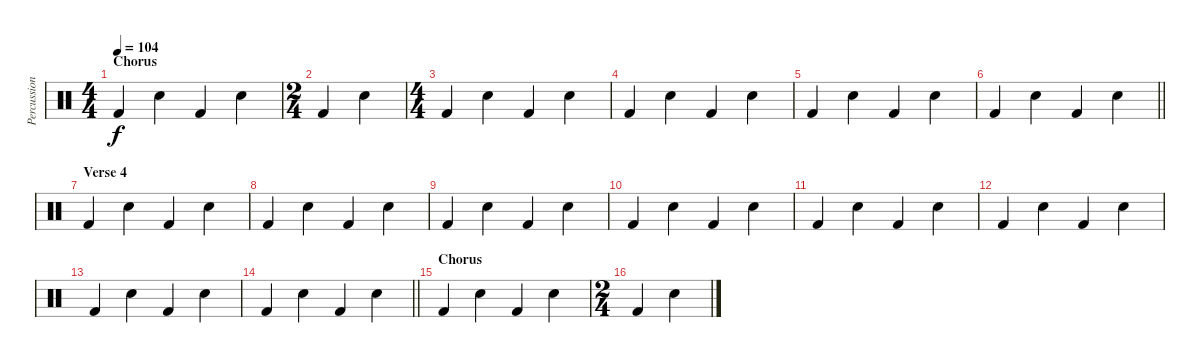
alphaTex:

\track ("Percussion" "Percussion") {instrument percussion}
\staff {score}
\articulation defaults
\ts (4 4)
\section ("" "Chorus")
\tempo 104
\clef neutral
\ks c "Kick (hit) 2".4{dy f} "Snare (hit) 2".4 "Kick (hit) 2".4 "Snare (hit) 2".4
|
\ts (2 4)
"Kick (hit) 2".4 "Snare (hit) 2".4 |
\ts (4 4)
"Kick (hit) 2".4 "Snare (hit) 2".4 "Kick (hit) 2".4 "Snare (hit) 2".4 |
"Kick (hit) 2".4 "Snare (hit) 2".4 "Kick (hit) 2".4 "Snare (hit) 2".4 |
"Kick (hit) 2".4 "Snare (hit) 2".4 "Kick (hit) 2".4 "Snare (hit) 2".4 |
\barLineRight lightlight "Kick (hit) 2".4 "Snare (hit) 2".4 "Kick (hit) 2".4 "Snare (hit) 2".4
|
\section ("" "Verse 4")
"Kick (hit) 2".4 "Snare (hit) 2".4 "Kick (hit) 2".4 "Snare (hit) 2".4 |
"Kick (hit) 2".4 "Snare (hit) 2".4 "Kick (hit) 2".4 "Snare (hit) 2".4 |
"Kick (hit) 2".4 "Snare (hit) 2".4 "Kick (hit) 2".4 "Snare (hit) 2".4 |
"Kick (hit) 2".4 "Snare (hit) 2".4 "Kick (hit) 2".4 "Snare (hit) 2".4 |
"Kick (hit) 2".4 "Snare (hit) 2".4 "Kick (hit) 2".4 "Snare (hit) 2".4 |
"Kick (hit) 2".4 "Snare (hit) 2".4 "Kick (hit) 2".4 "Snare (hit) 2".4 |
"Kick (hit) 2".4 "Snare (hit) 2".4 "Kick (hit) 2".4 "Snare (hit) 2".4 |
\barLineRight lightlight "Kick (hit) 2".4 "Snare (hit) 2".4 "Kick (hit) 2".4 "Snare (hit) 2".4
|
\section ("" "Chorus")
"Kick (hit) 2".4 "Snare (hit) 2".4 "Kick (hit) 2".4 "Snare (hit) 2".4 |
\ts (2 4)
"Kick (hit) 2".4 "Snare (hit) 2".4
